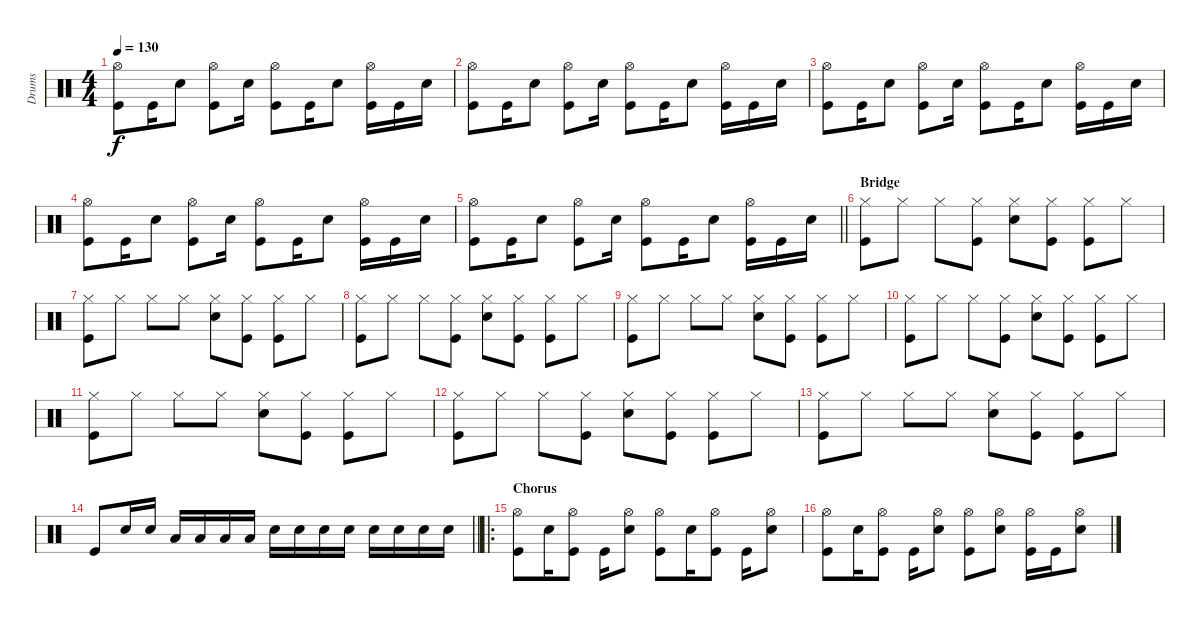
\track ("Drums" "Drums") {instrument percussion}
\staff {score}
\articulation defaults
\ts (4 4)
\tempo 130
\clef neutral
\ks c
("Hi-Hat (open)" "Kick (hit)").8{dy f} "Kick (hit)".16 "Snare (hit) 2".8 ("Hi-Hat (open)" "Kick (hit)").8 "Snare (hit) 2".16 ("Hi-Hat (open)" "Kick (hit)").8 "Kick (hit)".16 "Snare (hit) 2".8 ("Hi-Hat (open)" "Kick (hit)").16 "Kick (hit)".16 "Snare (hit) 2".16 |
("Hi-Hat (open)" "Kick (hit)").8 "Kick (hit)".16 "Snare (hit) 2".8 ("Hi-Hat (open)" "Kick (hit)").8 "Snare (hit) 2".16 ("Hi-Hat (open)" "Kick (hit)").8 "Kick (hit)".16 "Snare (hit) 2".8 ("Hi-Hat (open)" "Kick (hit)").16 "Kick (hit)".16 "Snare (hit) 2".16 |
("Hi-Hat (open)" "Kick (hit)").8 "Kick (hit)".16 "Snare (hit) 2".8 ("Hi-Hat (open)" "Kick (hit)").8 "Snare (hit) 2".16 ("Hi-Hat (open)" "Kick (hit)").8 "Kick (hit)".16 "Snare (hit) 2".8 ("Hi-Hat (open)" "Kick (hit)").16 "Kick (hit)".16 "Snare (hit) 2".16 |
("Hi-Hat (open)" "Kick (hit)").8 "Kick (hit)".16 "Snare (hit) 2".8 ("Hi-Hat (open)" "Kick (hit)").8 "Snare (hit) 2".16 ("Hi-Hat (open)" "Kick (hit)").8 "Kick (hit)".16 "Snare (hit) 2".8 ("Hi-Hat (open)" "Kick (hit)").16 "Kick (hit)".16 "Snare (hit) 2".16 |
\barLineRight lightlight
("Hi-Hat (open)" "Kick (hit)").8 "Kick (hit)".16 "Snare (hit) 2".8 ("Hi-Hat (open)" "Kick (hit)").8 "Snare (hit) 2".16 ("Hi-Hat (open)" "Kick (hit)").8 "Kick (hit)".16 "Snare (hit) 2".8 ("Hi-Hat (open)" "Kick (hit)").16 "Kick (hit)".16 "Snare (hit) 2".16 |
\section ("" "Bridge")
("Hi-Hat (closed)" "Kick (hit)").8 "Hi-Hat (closed)".8 "Hi-Hat (closed)".8 ("Hi-Hat (closed)" "Kick (hit)").8 ("Hi-Hat (closed)" "Snare (hit) 2").8 ("Hi-Hat (closed)" "Kick (hit)").8 ("Hi-Hat (closed)" "Kick (hit)").8 "Hi-Hat (closed)".8 |
("Hi-Hat (closed)" "Kick (hit)").8 "Hi-Hat (closed)".8 "Hi-Hat (closed)".8 "Hi-Hat (closed)".8 ("Hi-Hat (closed)" "Snare (hit) 2").8 ("Hi-Hat (closed)" "Kick (hit)").8 ("Hi-Hat (closed)" "Kick (hit)").8 "Hi-Hat (closed)".8 |
("Hi-Hat (closed)" "Kick (hit)").8 "Hi-Hat (closed)".8 "Hi-Hat (closed)".8 ("Hi-Hat (closed)" "Kick (hit)").8 ("Hi-Hat (closed)" "Snare (hit) 2").8 ("Hi-Hat (closed)" "Kick (hit)").8 ("Hi-Hat (closed)" "Kick (hit)").8 "Hi-Hat (closed)".8 |
("Hi-Hat (closed)" "Kick (hit)").8 "Hi-Hat (closed)".8 "Hi-Hat (closed)".8 "Hi-Hat (closed)".8 ("Hi-Hat (closed)" "Snare (hit) 2").8 ("Hi-Hat (closed)" "Kick (hit)").8 ("Hi-Hat (closed)" "Kick (hit)").8 "Hi-Hat (closed)".8 |
("Hi-Hat (closed)" "Kick (hit)").8 "Hi-Hat (closed)".8 "Hi-Hat (closed)".8 ("Hi-Hat (closed)" "Kick (hit)").8 ("Hi-Hat (closed)" "Snare (hit) 2").8 ("Hi-Hat (closed)" "Kick (hit)").8 ("Hi-Hat (closed)" "Kick (hit)").8 "Hi-Hat (closed)".8 |
("Hi-Hat (closed)" "Kick (hit)").8 "Hi-Hat (closed)".8 "Hi-Hat (closed)".8 "Hi-Hat (closed)".8 ("Hi-Hat (closed)" "Snare (hit) 2").8 ("Hi-Hat (closed)" "Kick (hit)").8 ("Hi-Hat (closed)" "Kick (hit)").8 "Hi-Hat (closed)".8 |
("Hi-Hat (closed)" "Kick (hit)").8 "Hi-Hat (closed)".8 "Hi-Hat (closed)".8 ("Hi-Hat (closed)" "Kick (hit)").8 ("Hi-Hat (closed)" "Snare (hit) 2").8 ("Hi-Hat (closed)" "Kick (hit)").8 ("Hi-Hat (closed)" "Kick (hit)").8 "Hi-Hat (closed)".8 |
("Hi-Hat (closed)" "Kick (hit)").8 "Hi-Hat (closed)".8 "Hi-Hat (closed)".8 "Hi-Hat (closed)".8 ("Hi-Hat (closed)" "Snare (hit) 2").8 ("Hi-Hat (closed)" "Kick (hit)").8 ("Hi-Hat (closed)" "Kick (hit)").8 "Hi-Hat (closed)".8 |
\barLineRight lightlight "Kick (hit)".8 "Snare (hit) 2".16 "Snare (hit) 2".16 "Low Tom (hit)".16 "Low Tom (hit)".16 "Low Floor Tom (hit)".16 "Low Floor Tom (hit)".16 "Snare (hit) 2".16 "Snare (hit) 2".16 "Snare (hit) 2".16 "Snare (hit) 2".16 "Snare (hit) 2".16 "Snare (hit) 2".16 "Snare (hit) 2".16 "Snare (hit) 2".16
|
\ro
\section ("" "Chorus")
("Hi-Hat (open)" "Kick (hit)").8 "Snare (hit) 2".16 ("Hi-Hat (open)" "Kick (hit)").8 "Kick (hit)".16 ("Hi-Hat (open)" "Snare (hit) 2").8 ("Hi-Hat (open)" "Kick (hit)").8 "Snare (hit) 2".16 ("Hi-Hat (open)" "Kick (hit)").8 "Kick (hit)".16 ("Hi-Hat (open)" "Snare (hit) 2").8 |
("Hi-Hat (open)" "Kick (hit)").8 "Snare (hit) 2".16 ("Hi-Hat (open)" "Kick (hit)").8 "Kick (hit)".16 ("Hi-Hat (open)" "Snare (hit) 2").8 ("Hi-Hat (open)" "Kick (hit)").8 ("Hi-Hat (open)" "Snare (hit) 2").8 ("Hi-Hat (open)" "Kick (hit)").16 "Kick (hit)".16 ("Hi-Hat (open)" "Snare (hit) 2").8
